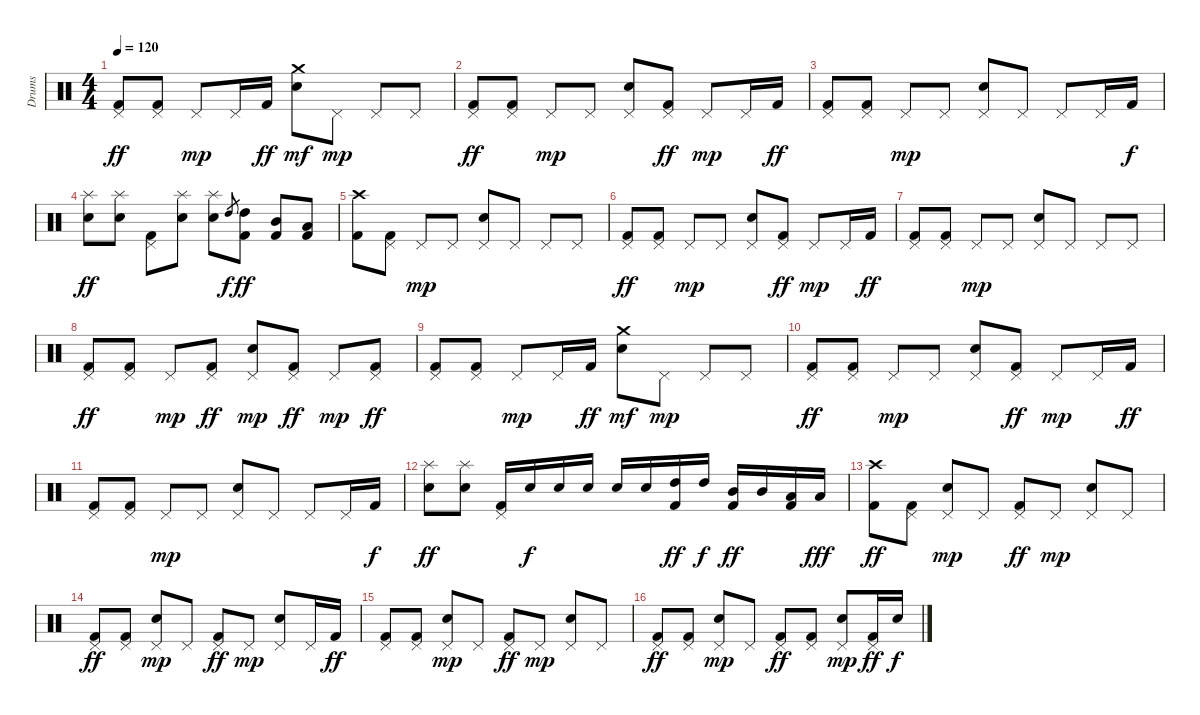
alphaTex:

\track ("Drums" "Drums") {instrument percussion}
\staff {score}
\articulation defaults
\ts (4 4)
\tempo 120
\clef neutral
\ks c
("Pedal Hi-Hat (hit)" "Kick (hit) 2").8{dy ff} ("Pedal Hi-Hat (hit)" "Kick (hit) 2").8 "Pedal Hi-Hat (hit)".8{dy mp} "Pedal Hi-Hat (hit)".16 "Kick (hit) 2".16{dy ff} ("Crash medium (hit)" "Electric Snare (hit)").8{dy mf} "Pedal Hi-Hat (hit)".8{dy mp} "Pedal Hi-Hat (hit)".8 "Pedal Hi-Hat (hit)".8 |
("Pedal Hi-Hat (hit)" "Kick (hit) 2").8{dy ff} ("Pedal Hi-Hat (hit)" "Kick (hit) 2").8 "Pedal Hi-Hat (hit)".8{dy mp} "Pedal Hi-Hat (hit)".8 ("Pedal Hi-Hat (hit)" "Electric Snare (hit)").8 ("Pedal Hi-Hat (hit)" "Kick (hit) 2").8{dy ff} "Pedal Hi-Hat (hit)".8{dy mp} "Pedal Hi-Hat (hit)".16 "Kick (hit) 2".16{dy ff} |
("Pedal Hi-Hat (hit)" "Kick (hit) 2").8 ("Pedal Hi-Hat (hit)" "Kick (hit) 2").8 "Pedal Hi-Hat (hit)".8{dy mp} "Pedal Hi-Hat (hit)".8 ("Pedal Hi-Hat (hit)" "Electric Snare (hit)").8 "Pedal Hi-Hat (hit)".8 "Pedal Hi-Hat (hit)".8 "Pedal Hi-Hat (hit)".16 "Kick (hit) 2".16{dy f} |
("Splash (hit)" "Electric Snare (hit)").8{dy ff} ("Splash (hit)" "Electric Snare (hit)").8 ("Pedal Hi-Hat (hit)" "Kick (hit) 2").8 ("Splash (hit)" "Electric Snare (hit)").8 ("Splash (hit)" "Electric Snare (hit)").8 "High Tom (hit)".8{gr dy f} ("High Tom (hit)" "Kick (hit) 2").8{dy ff} ("Mid Tom (hit)" "Kick (hit) 2").8 ("Low Tom (hit)" "Kick (hit) 2").8 |
("Crash high (hit)" "Kick (hit) 2").8{volume 13} ("Pedal Hi-Hat (hit)" "Kick (hit) 2").8 "Pedal Hi-Hat (hit)".8{dy mp} "Pedal Hi-Hat (hit)".8 ("Pedal Hi-Hat (hit)" "Electric Snare (hit)").8 "Pedal Hi-Hat (hit)".8 "Pedal Hi-Hat (hit)".8 "Pedal Hi-Hat (hit)".8 |
("Pedal Hi-Hat (hit)" "Kick (hit) 2").8{dy ff} ("Pedal Hi-Hat (hit)" "Kick (hit) 2").8 "Pedal Hi-Hat (hit)".8{dy mp} "Pedal Hi-Hat (hit)".8 ("Pedal Hi-Hat (hit)" "Electric Snare (hit)").8 ("Pedal Hi-Hat (hit)" "Kick (hit) 2").8{dy ff} "Pedal Hi-Hat (hit)".8{dy mp} "Pedal Hi-Hat (hit)".16 "Kick (hit) 2".16{dy ff} |
("Pedal Hi-Hat (hit)" "Kick (hit) 2").8 ("Pedal Hi-Hat (hit)" "Kick (hit) 2").8 "Pedal Hi-Hat (hit)".8{dy mp} "Pedal Hi-Hat (hit)".8 ("Pedal Hi-Hat (hit)" "Electric Snare (hit)").8 "Pedal Hi-Hat (hit)".8 "Pedal Hi-Hat (hit)".8 "Pedal Hi-Hat (hit)".8 |
("Pedal Hi-Hat (hit)" "Kick (hit) 2").8{dy ff} ("Pedal Hi-Hat (hit)" "Kick (hit) 2").8 "Pedal Hi-Hat (hit)".8{dy mp} ("Pedal Hi-Hat (hit)" "Kick (hit) 2").8{dy ff} ("Pedal Hi-Hat (hit)" "Electric Snare (hit)").8{dy mp} ("Pedal Hi-Hat (hit)" "Kick (hit) 2").8{dy ff} "Pedal Hi-Hat (hit)".8{dy mp} ("Pedal Hi-Hat (hit)" "Kick (hit) 2").8{dy ff} |
("Pedal Hi-Hat (hit)" "Kick (hit) 2").8 ("Pedal Hi-Hat (hit)" "Kick (hit) 2").8 "Pedal Hi-Hat (hit)".8{dy mp} "Pedal Hi-Hat (hit)".16 "Kick (hit) 2".16{dy ff} ("Crash medium (hit)" "Electric Snare (hit)").8{dy mf} "Pedal Hi-Hat (hit)".8{dy mp} "Pedal Hi-Hat (hit)".8 "Pedal Hi-Hat (hit)".8 |
("Pedal Hi-Hat (hit)" "Kick (hit) 2").8{dy ff} ("Pedal Hi-Hat (hit)" "Kick (hit) 2").8 "Pedal Hi-Hat (hit)".8{dy mp} "Pedal Hi-Hat (hit)".8 ("Pedal Hi-Hat (hit)" "Electric Snare (hit)").8 ("Pedal Hi-Hat (hit)" "Kick (hit) 2").8{dy ff} "Pedal Hi-Hat (hit)".8{dy mp} "Pedal Hi-Hat (hit)".16 "Kick (hit) 2".16{dy ff} |
("Pedal Hi-Hat (hit)" "Kick (hit) 2").8 ("Pedal Hi-Hat (hit)" "Kick (hit) 2").8 "Pedal Hi-Hat (hit)".8{dy mp} "Pedal Hi-Hat (hit)".8 ("Pedal Hi-Hat (hit)" "Electric Snare (hit)").8 "Pedal Hi-Hat (hit)".8 "Pedal Hi-Hat (hit)".8 "Pedal Hi-Hat (hit)".16 "Kick (hit) 2".16{dy f} |
("Splash (hit)" "Electric Snare (hit)").8{dy ff} ("Splash (hit)" "Electric Snare (hit)").8 ("Pedal Hi-Hat (hit)" "Kick (hit) 2").16 "Electric Snare (hit)".16{dy f} "Electric Snare (hit)".16 "Electric Snare (hit)".16 "Electric Snare (hit)".16 "Electric Snare (hit)".16 ("High Tom (hit)" "Kick (hit) 2").16{dy ff} "High Tom (hit)".16{dy f} ("Mid Tom (hit)" "Kick (hit) 2").16{dy ff} "Mid Tom (hit)".16 ("Low Tom (hit)" "Kick (hit) 2").16 "Low Tom (hit)".16{dy fff} |
\section ("" "")
("Crash high (hit)" "Kick (hit) 2").8{dy ff volume 13} ("Pedal Hi-Hat (hit)" "Kick (hit) 2").8 ("Pedal Hi-Hat (hit)" "Electric Snare (hit)").8{dy mp} "Pedal Hi-Hat (hit)".8 ("Pedal Hi-Hat (hit)" "Kick (hit) 2").8{dy ff} "Pedal Hi-Hat (hit)".8{dy mp} ("Pedal Hi-Hat (hit)" "Electric Snare (hit)").8 "Pedal Hi-Hat (hit)".8 |
("Pedal Hi-Hat (hit)" "Kick (hit) 2").8{dy ff} ("Pedal Hi-Hat (hit)" "Kick (hit) 2").8 ("Pedal Hi-Hat (hit)" "Electric Snare (hit)").8{dy mp} "Pedal Hi-Hat (hit)".8 ("Pedal Hi-Hat (hit)" "Kick (hit) 2").8{dy ff} "Pedal Hi-Hat (hit)".8{dy mp} ("Pedal Hi-Hat (hit)" "Electric Snare (hit)").8 "Pedal Hi-Hat (hit)".16 "Kick (hit) 2".16{dy ff} |
("Pedal Hi-Hat (hit)" "Kick (hit) 2").8 ("Pedal Hi-Hat (hit)" "Kick (hit) 2").8 ("Pedal Hi-Hat (hit)" "Electric Snare (hit)").8{dy mp} "Pedal Hi-Hat (hit)".8 ("Pedal Hi-Hat (hit)" "Kick (hit) 2").8{dy ff} "Pedal Hi-Hat (hit)".8{dy mp} ("Pedal Hi-Hat (hit)" "Electric Snare (hit)").8 "Pedal Hi-Hat (hit)".8 |
("Pedal Hi-Hat (hit)" "Kick (hit) 2").8{dy ff} ("Pedal Hi-Hat (hit)" "Kick (hit) 2").8 ("Pedal Hi-Hat (hit)" "Electric Snare (hit)").8{dy mp} "Pedal Hi-Hat (hit)".8 ("Pedal Hi-Hat (hit)" "Kick (hit) 2").8{dy ff} ("Pedal Hi-Hat (hit)" "Kick (hit) 2").8 ("Pedal Hi-Hat (hit)" "Electric Snare (hit)").8{dy mp} ("Pedal Hi-Hat (hit)" "Kick (hit) 2").16{dy ff} "Electric Snare (hit)".16{dy f}
